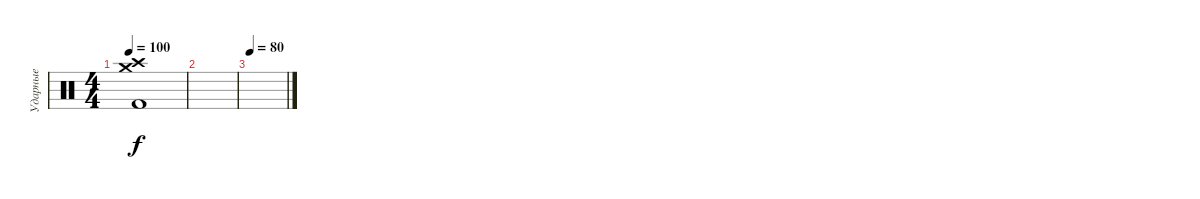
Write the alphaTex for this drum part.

\track ("Ударные" "Ударные") {instrument percussion}
\staff {score}
\articulation defaults
\ts (4 4)
\tempo 100
\clef neutral
\ks c
("Crash high (hit)" "Crash medium (hit)" "Kick (hit) 2").1{dy f} |
|
\tempo 80
